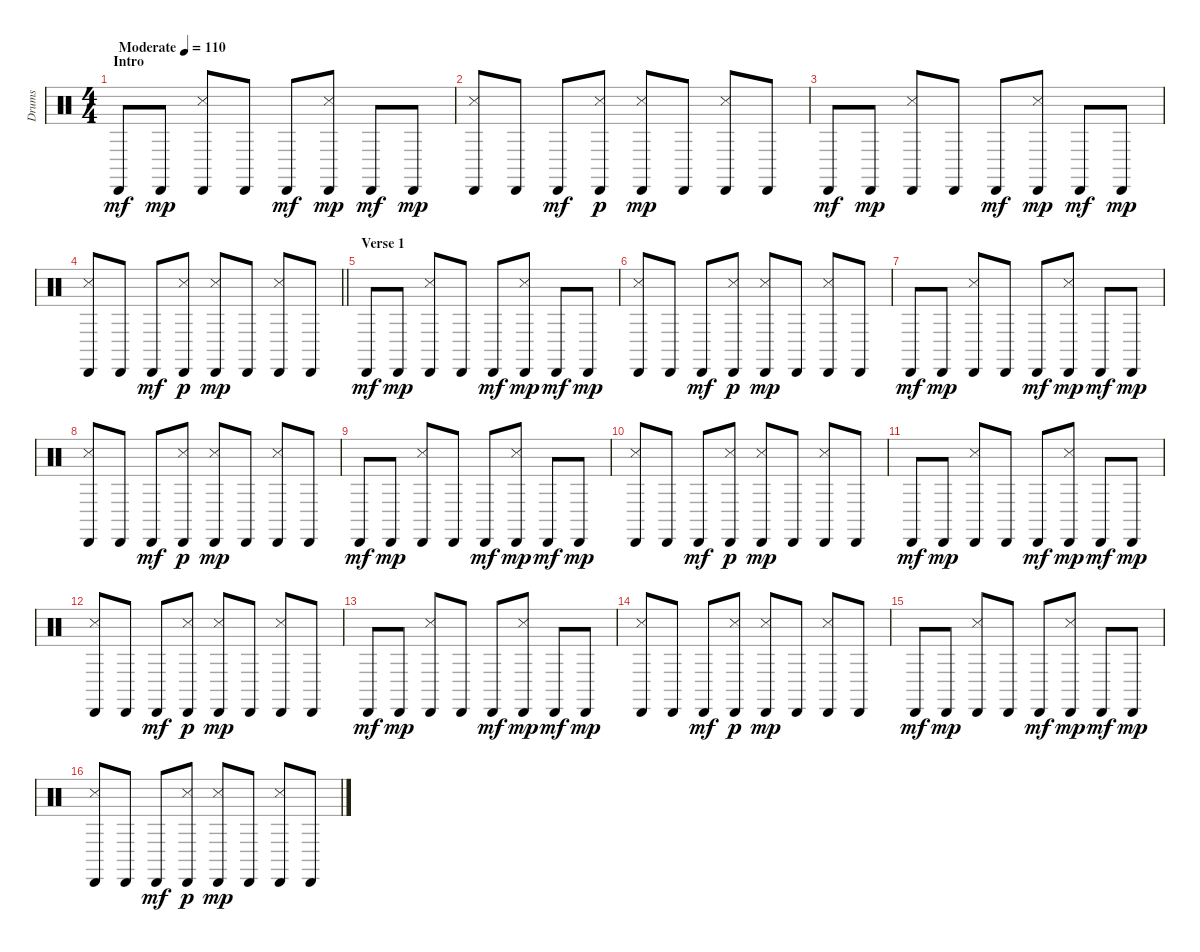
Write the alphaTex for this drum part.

\track ("Drums" "Drums") {instrument percussion}
\staff {score}
\articulation defaults
\ts (4 4)
\section ("" "Intro")
\tempo (110 "Moderate")
\clef neutral
\ks c "Cabasa (hit)".8{dy mf} "Cabasa (hit)".8{dy mp}
("Cabasa (hit)" "Snare (side stick) 3").8 "Cabasa (hit)".8 "Cabasa (hit)".8{dy mf} ("Cabasa (hit)" "Snare (side stick) 3").8{dy mp} "Cabasa (hit)".8{dy mf} "Cabasa (hit)".8{dy mp} |
("Cabasa (hit)" "Snare (side stick) 3").8 "Cabasa (hit)".8 "Cabasa (hit)".8{dy mf} ("Cabasa (hit)" "Snare (side stick) 3").8{dy p} ("Cabasa (hit)" "Snare (side stick) 3").8{dy mp} "Cabasa (hit)".8 ("Cabasa (hit)" "Snare (side stick) 3").8 "Cabasa (hit)".8 |
"Cabasa (hit)".8{dy mf} "Cabasa (hit)".8{dy mp} ("Cabasa (hit)" "Snare (side stick) 3").8 "Cabasa (hit)".8 "Cabasa (hit)".8{dy mf} ("Cabasa (hit)" "Snare (side stick) 3").8{dy mp} "Cabasa (hit)".8{dy mf} "Cabasa (hit)".8{dy mp} |
\barLineRight lightlight
("Cabasa (hit)" "Snare (side stick) 3").8 "Cabasa (hit)".8 "Cabasa (hit)".8{dy mf} ("Cabasa (hit)" "Snare (side stick) 3").8{dy p} ("Cabasa (hit)" "Snare (side stick) 3").8{dy mp} "Cabasa (hit)".8 ("Cabasa (hit)" "Snare (side stick) 3").8 "Cabasa (hit)".8 |
\section ("" "Verse 1")
"Cabasa (hit)".8{dy mf} "Cabasa (hit)".8{dy mp} ("Cabasa (hit)" "Snare (side stick) 3").8 "Cabasa (hit)".8 "Cabasa (hit)".8{dy mf} ("Cabasa (hit)" "Snare (side stick) 3").8{dy mp} "Cabasa (hit)".8{dy mf} "Cabasa (hit)".8{dy mp} |
("Cabasa (hit)" "Snare (side stick) 3").8 "Cabasa (hit)".8 "Cabasa (hit)".8{dy mf} ("Cabasa (hit)" "Snare (side stick) 3").8{dy p} ("Cabasa (hit)" "Snare (side stick) 3").8{dy mp} "Cabasa (hit)".8 ("Cabasa (hit)" "Snare (side stick) 3").8 "Cabasa (hit)".8 |
"Cabasa (hit)".8{dy mf} "Cabasa (hit)".8{dy mp} ("Cabasa (hit)" "Snare (side stick) 3").8 "Cabasa (hit)".8 "Cabasa (hit)".8{dy mf} ("Cabasa (hit)" "Snare (side stick) 3").8{dy mp} "Cabasa (hit)".8{dy mf} "Cabasa (hit)".8{dy mp} |
("Cabasa (hit)" "Snare (side stick) 3").8 "Cabasa (hit)".8 "Cabasa (hit)".8{dy mf} ("Cabasa (hit)" "Snare (side stick) 3").8{dy p} ("Cabasa (hit)" "Snare (side stick) 3").8{dy mp} "Cabasa (hit)".8 ("Cabasa (hit)" "Snare (side stick) 3").8 "Cabasa (hit)".8 |
"Cabasa (hit)".8{dy mf} "Cabasa (hit)".8{dy mp} ("Cabasa (hit)" "Snare (side stick) 3").8 "Cabasa (hit)".8 "Cabasa (hit)".8{dy mf} ("Cabasa (hit)" "Snare (side stick) 3").8{dy mp} "Cabasa (hit)".8{dy mf} "Cabasa (hit)".8{dy mp} |
("Cabasa (hit)" "Snare (side stick) 3").8 "Cabasa (hit)".8 "Cabasa (hit)".8{dy mf} ("Cabasa (hit)" "Snare (side stick) 3").8{dy p} ("Cabasa (hit)" "Snare (side stick) 3").8{dy mp} "Cabasa (hit)".8 ("Cabasa (hit)" "Snare (side stick) 3").8 "Cabasa (hit)".8 |
"Cabasa (hit)".8{dy mf} "Cabasa (hit)".8{dy mp} ("Cabasa (hit)" "Snare (side stick) 3").8 "Cabasa (hit)".8 "Cabasa (hit)".8{dy mf} ("Cabasa (hit)" "Snare (side stick) 3").8{dy mp} "Cabasa (hit)".8{dy mf} "Cabasa (hit)".8{dy mp} |
("Cabasa (hit)" "Snare (side stick) 3").8 "Cabasa (hit)".8 "Cabasa (hit)".8{dy mf} ("Cabasa (hit)" "Snare (side stick) 3").8{dy p} ("Cabasa (hit)" "Snare (side stick) 3").8{dy mp} "Cabasa (hit)".8 ("Cabasa (hit)" "Snare (side stick) 3").8 "Cabasa (hit)".8 |
"Cabasa (hit)".8{dy mf} "Cabasa (hit)".8{dy mp} ("Cabasa (hit)" "Snare (side stick) 3").8 "Cabasa (hit)".8 "Cabasa (hit)".8{dy mf} ("Cabasa (hit)" "Snare (side stick) 3").8{dy mp} "Cabasa (hit)".8{dy mf} "Cabasa (hit)".8{dy mp} |
("Cabasa (hit)" "Snare (side stick) 3").8 "Cabasa (hit)".8 "Cabasa (hit)".8{dy mf} ("Cabasa (hit)" "Snare (side stick) 3").8{dy p} ("Cabasa (hit)" "Snare (side stick) 3").8{dy mp} "Cabasa (hit)".8 ("Cabasa (hit)" "Snare (side stick) 3").8 "Cabasa (hit)".8 |
"Cabasa (hit)".8{dy mf} "Cabasa (hit)".8{dy mp} ("Cabasa (hit)" "Snare (side stick) 3").8 "Cabasa (hit)".8 "Cabasa (hit)".8{dy mf} ("Cabasa (hit)" "Snare (side stick) 3").8{dy mp} "Cabasa (hit)".8{dy mf} "Cabasa (hit)".8{dy mp} |
("Cabasa (hit)" "Snare (side stick) 3").8 "Cabasa (hit)".8 "Cabasa (hit)".8{dy mf} ("Cabasa (hit)" "Snare (side stick) 3").8{dy p} ("Cabasa (hit)" "Snare (side stick) 3").8{dy mp} "Cabasa (hit)".8 ("Cabasa (hit)" "Snare (side stick) 3").8 "Cabasa (hit)".8
